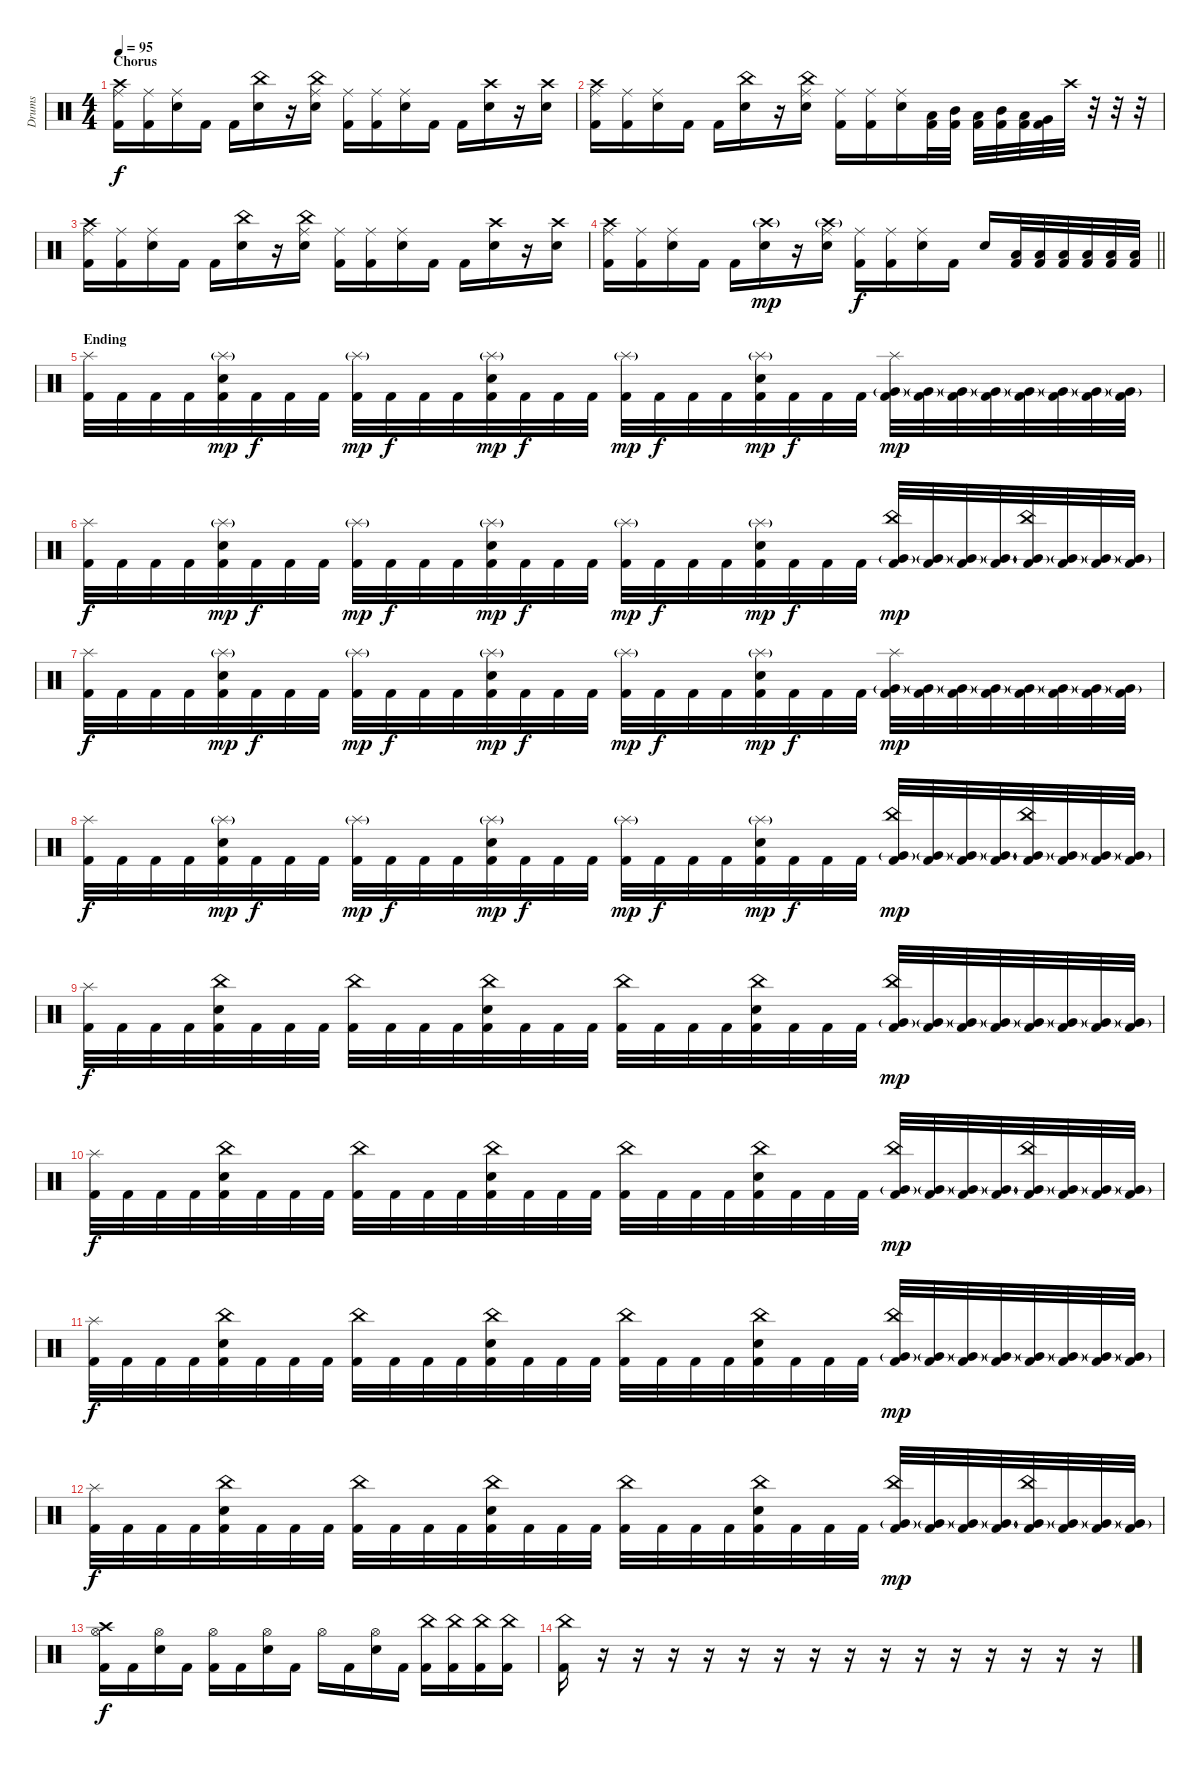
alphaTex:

\track ("Drums" "Drums") {instrument percussion}
\staff {score}
\articulation defaults
\ts (4 4)
\section ("" "Chorus")
\tempo 95
\clef neutral
\ks c
("Crash high (hit)" "Kick (hit) 2" "Ride (middle)").16{dy f} ("Kick (hit) 2" "Ride (middle)").16 ("Snare (hit) 2" "Ride (middle)").16 "Kick (hit) 2".16 "Kick (hit) 2".16 ("China (hit)" "Snare (hit) 2").16 r.16 ("China (hit)" "Snare (hit) 2" "Ride (middle)").16 ("Kick (hit) 2" "Ride (middle)").16 ("Kick (hit) 2" "Ride (middle)").16 ("Snare (hit) 2" "Ride (middle)").16 "Kick (hit) 2".16 "Kick (hit) 2".16 ("Crash high (hit)" "Snare (hit) 2").16 r.16 ("Crash high (hit)" "Snare (hit) 2").16 |
("Crash high (hit)" "Kick (hit) 2" "Ride (middle)").16 ("Kick (hit) 2" "Ride (middle)").16 ("Snare (hit) 2" "Ride (middle)").16 "Kick (hit) 2".16 "Kick (hit) 2".16 ("China (hit)" "Snare (hit) 2").16 r.16 ("China (hit)" "Snare (hit) 2" "Ride (middle)").16 ("Kick (hit) 2" "Ride (middle)").16 ("Kick (hit) 2" "Ride (middle)").16 ("Snare (hit) 2" "Ride (middle)").16 ("Low Tom (hit)" "Kick (hit) 2").32 ("Mid Tom (hit)" "Kick (hit) 2").32 ("Low Tom (hit)" "Kick (hit) 2").32 ("Mid Tom (hit)" "Kick (hit) 2").32 ("Low Tom (hit)" "Kick (hit) 2").32 ("Very Low Tom (hit)" "Kick (hit) 2").32 "Crash high (hit)".32 r.32 r.32 r.32 |
("Crash high (hit)" "Kick (hit) 2" "Ride (middle)").16 ("Kick (hit) 2" "Ride (middle)").16 ("Snare (hit) 2" "Ride (middle)").16 "Kick (hit) 2".16 "Kick (hit) 2".16 ("China (hit)" "Snare (hit) 2").16 r.16 ("China (hit)" "Snare (hit) 2" "Ride (middle)").16 ("Kick (hit) 2" "Ride (middle)").16 ("Kick (hit) 2" "Ride (middle)").16 ("Snare (hit) 2" "Ride (middle)").16 "Kick (hit) 2".16 "Kick (hit) 2".16 ("Crash high (hit)" "Snare (hit) 2").16 r.16 ("Crash high (hit)" "Snare (hit) 2").16 |
\barLineRight lightlight
("Crash high (hit)" "Kick (hit) 2" "Ride (middle)").16 ("Kick (hit) 2" "Ride (middle)").16 ("Snare (hit) 2" "Ride (middle)").16 "Kick (hit) 2".16 "Kick (hit) 2".16 ("Crash high (hit)"{g} "Snare (hit) 2").16{dy mp} r.16 ("Crash high (hit)"{g} "Snare (hit) 2" "Ride (middle)").16 ("Kick (hit) 2" "Ride (middle)").16{dy f} ("Kick (hit) 2" "Ride (middle)").16 ("Snare (hit) 2" "Ride (middle)").16 "Kick (hit) 2".16 "Snare (hit) 2".16 ("Low Tom (hit)" "Kick (hit) 2").32 ("Low Tom (hit)" "Kick (hit) 2").32 ("Low Tom (hit)" "Kick (hit) 2").32 ("Low Tom (hit)" "Kick (hit) 2").32 ("Low Tom (hit)" "Kick (hit) 2").32 ("Low Tom (hit)" "Kick (hit) 2").32 |
\section ("" "Ending")
("Splash (hit)" "Kick (hit) 2").32 "Kick (hit) 2".32 "Kick (hit) 2".32 "Kick (hit) 2".32 ("Splash (hit)"{g} "Snare (hit) 2" "Kick (hit) 2").32{dy mp} "Kick (hit) 2".32{dy f} "Kick (hit) 2".32 "Kick (hit) 2".32 ("Splash (hit)"{g} "Kick (hit) 2").32{dy mp} "Kick (hit) 2".32{dy f} "Kick (hit) 2".32 "Kick (hit) 2".32 ("Splash (hit)"{g} "Snare (hit) 2" "Kick (hit) 2").32{dy mp} "Kick (hit) 2".32{dy f} "Kick (hit) 2".32 "Kick (hit) 2".32 ("Splash (hit)"{g} "Kick (hit) 2").32{dy mp} "Kick (hit) 2".32{dy f} "Kick (hit) 2".32 "Kick (hit) 2".32 ("Splash (hit)"{g} "Snare (hit) 2" "Kick (hit) 2").32{dy mp} "Kick (hit) 2".32{dy f} "Kick (hit) 2".32 "Kick (hit) 2".32 ("Splash (hit)" "Very Low Tom (hit)"{g} "Kick (hit) 2").32{dy mp} ("Very Low Tom (hit)"{g} "Kick (hit) 2").32 ("Very Low Tom (hit)"{g} "Kick (hit) 2").32 ("Very Low Tom (hit)"{g} "Kick (hit) 2").32 ("Very Low Tom (hit)"{g} "Kick (hit) 2").32 ("Very Low Tom (hit)"{g} "Kick (hit) 2").32 ("Very Low Tom (hit)"{g} "Kick (hit) 2").32 ("Very Low Tom (hit)"{g} "Kick (hit) 2").32 |
("Splash (hit)" "Kick (hit) 2").32{dy f} "Kick (hit) 2".32 "Kick (hit) 2".32 "Kick (hit) 2".32 ("Splash (hit)"{g} "Snare (hit) 2" "Kick (hit) 2").32{dy mp} "Kick (hit) 2".32{dy f} "Kick (hit) 2".32 "Kick (hit) 2".32 ("Splash (hit)"{g} "Kick (hit) 2").32{dy mp} "Kick (hit) 2".32{dy f} "Kick (hit) 2".32 "Kick (hit) 2".32 ("Splash (hit)"{g} "Snare (hit) 2" "Kick (hit) 2").32{dy mp} "Kick (hit) 2".32{dy f} "Kick (hit) 2".32 "Kick (hit) 2".32 ("Splash (hit)"{g} "Kick (hit) 2").32{dy mp} "Kick (hit) 2".32{dy f} "Kick (hit) 2".32 "Kick (hit) 2".32 ("Splash (hit)"{g} "Snare (hit) 2" "Kick (hit) 2").32{dy mp} "Kick (hit) 2".32{dy f} "Kick (hit) 2".32 "Kick (hit) 2".32 ("China (hit)" "Very Low Tom (hit)"{g} "Kick (hit) 2").32{dy mp} ("Very Low Tom (hit)"{g} "Kick (hit) 2").32 ("Very Low Tom (hit)"{g} "Kick (hit) 2").32 ("Very Low Tom (hit)"{g} "Kick (hit) 2").32 ("China (hit)" "Very Low Tom (hit)"{g} "Kick (hit) 2").32 ("Very Low Tom (hit)"{g} "Kick (hit) 2").32 ("Very Low Tom (hit)"{g} "Kick (hit) 2").32 ("Very Low Tom (hit)"{g} "Kick (hit) 2").32 |
("Splash (hit)" "Kick (hit) 2").32{dy f} "Kick (hit) 2".32 "Kick (hit) 2".32 "Kick (hit) 2".32 ("Splash (hit)"{g} "Snare (hit) 2" "Kick (hit) 2").32{dy mp} "Kick (hit) 2".32{dy f} "Kick (hit) 2".32 "Kick (hit) 2".32 ("Splash (hit)"{g} "Kick (hit) 2").32{dy mp} "Kick (hit) 2".32{dy f} "Kick (hit) 2".32 "Kick (hit) 2".32 ("Splash (hit)"{g} "Snare (hit) 2" "Kick (hit) 2").32{dy mp} "Kick (hit) 2".32{dy f} "Kick (hit) 2".32 "Kick (hit) 2".32 ("Splash (hit)"{g} "Kick (hit) 2").32{dy mp} "Kick (hit) 2".32{dy f} "Kick (hit) 2".32 "Kick (hit) 2".32 ("Splash (hit)"{g} "Snare (hit) 2" "Kick (hit) 2").32{dy mp} "Kick (hit) 2".32{dy f} "Kick (hit) 2".32 "Kick (hit) 2".32 ("Splash (hit)" "Very Low Tom (hit)"{g} "Kick (hit) 2").32{dy mp} ("Very Low Tom (hit)"{g} "Kick (hit) 2").32 ("Very Low Tom (hit)"{g} "Kick (hit) 2").32 ("Very Low Tom (hit)"{g} "Kick (hit) 2").32 ("Very Low Tom (hit)"{g} "Kick (hit) 2").32 ("Very Low Tom (hit)"{g} "Kick (hit) 2").32 ("Very Low Tom (hit)"{g} "Kick (hit) 2").32 ("Very Low Tom (hit)"{g} "Kick (hit) 2").32 |
("Splash (hit)" "Kick (hit) 2").32{dy f} "Kick (hit) 2".32 "Kick (hit) 2".32 "Kick (hit) 2".32 ("Splash (hit)"{g} "Snare (hit) 2" "Kick (hit) 2").32{dy mp} "Kick (hit) 2".32{dy f} "Kick (hit) 2".32 "Kick (hit) 2".32 ("Splash (hit)"{g} "Kick (hit) 2").32{dy mp} "Kick (hit) 2".32{dy f} "Kick (hit) 2".32 "Kick (hit) 2".32 ("Splash (hit)"{g} "Snare (hit) 2" "Kick (hit) 2").32{dy mp} "Kick (hit) 2".32{dy f} "Kick (hit) 2".32 "Kick (hit) 2".32 ("Splash (hit)"{g} "Kick (hit) 2").32{dy mp} "Kick (hit) 2".32{dy f} "Kick (hit) 2".32 "Kick (hit) 2".32 ("Splash (hit)"{g} "Snare (hit) 2" "Kick (hit) 2").32{dy mp} "Kick (hit) 2".32{dy f} "Kick (hit) 2".32 "Kick (hit) 2".32 ("China (hit)" "Very Low Tom (hit)"{g} "Kick (hit) 2").32{dy mp} ("Very Low Tom (hit)"{g} "Kick (hit) 2").32 ("Very Low Tom (hit)"{g} "Kick (hit) 2").32 ("Very Low Tom (hit)"{g} "Kick (hit) 2").32 ("China (hit)" "Very Low Tom (hit)"{g} "Kick (hit) 2").32 ("Very Low Tom (hit)"{g} "Kick (hit) 2").32 ("Very Low Tom (hit)"{g} "Kick (hit) 2").32 ("Very Low Tom (hit)"{g} "Kick (hit) 2").32 |
("Splash (hit)" "Kick (hit) 2").32{dy f} "Kick (hit) 2".32 "Kick (hit) 2".32 "Kick (hit) 2".32 ("China (hit)" "Snare (hit) 2" "Kick (hit) 2").32 "Kick (hit) 2".32 "Kick (hit) 2".32 "Kick (hit) 2".32 ("China (hit)" "Kick (hit) 2").32 "Kick (hit) 2".32 "Kick (hit) 2".32 "Kick (hit) 2".32 ("China (hit)" "Snare (hit) 2" "Kick (hit) 2").32 "Kick (hit) 2".32 "Kick (hit) 2".32 "Kick (hit) 2".32 ("China (hit)" "Kick (hit) 2").32 "Kick (hit) 2".32 "Kick (hit) 2".32 "Kick (hit) 2".32 ("China (hit)" "Snare (hit) 2" "Kick (hit) 2").32 "Kick (hit) 2".32 "Kick (hit) 2".32 "Kick (hit) 2".32 ("China (hit)" "Very Low Tom (hit)"{g} "Kick (hit) 2").32{dy mp} ("Very Low Tom (hit)"{g} "Kick (hit) 2").32 ("Very Low Tom (hit)"{g} "Kick (hit) 2").32 ("Very Low Tom (hit)"{g} "Kick (hit) 2").32 ("Very Low Tom (hit)"{g} "Kick (hit) 2").32 ("Very Low Tom (hit)"{g} "Kick (hit) 2").32 ("Very Low Tom (hit)"{g} "Kick (hit) 2").32 ("Very Low Tom (hit)"{g} "Kick (hit) 2").32 |
("Splash (hit)" "Kick (hit) 2").32{dy f} "Kick (hit) 2".32 "Kick (hit) 2".32 "Kick (hit) 2".32 ("China (hit)" "Snare (hit) 2" "Kick (hit) 2").32 "Kick (hit) 2".32 "Kick (hit) 2".32 "Kick (hit) 2".32 ("China (hit)" "Kick (hit) 2").32 "Kick (hit) 2".32 "Kick (hit) 2".32 "Kick (hit) 2".32 ("China (hit)" "Snare (hit) 2" "Kick (hit) 2").32 "Kick (hit) 2".32 "Kick (hit) 2".32 "Kick (hit) 2".32 ("China (hit)" "Kick (hit) 2").32 "Kick (hit) 2".32 "Kick (hit) 2".32 "Kick (hit) 2".32 ("China (hit)" "Snare (hit) 2" "Kick (hit) 2").32 "Kick (hit) 2".32 "Kick (hit) 2".32 "Kick (hit) 2".32 ("China (hit)" "Very Low Tom (hit)"{g} "Kick (hit) 2").32{dy mp} ("Very Low Tom (hit)"{g} "Kick (hit) 2").32 ("Very Low Tom (hit)"{g} "Kick (hit) 2").32 ("Very Low Tom (hit)"{g} "Kick (hit) 2").32 ("China (hit)" "Very Low Tom (hit)"{g} "Kick (hit) 2").32 ("Very Low Tom (hit)"{g} "Kick (hit) 2").32 ("Very Low Tom (hit)"{g} "Kick (hit) 2").32 ("Very Low Tom (hit)"{g} "Kick (hit) 2").32 |
("Splash (hit)" "Kick (hit) 2").32{dy f} "Kick (hit) 2".32 "Kick (hit) 2".32 "Kick (hit) 2".32 ("China (hit)" "Snare (hit) 2" "Kick (hit) 2").32 "Kick (hit) 2".32 "Kick (hit) 2".32 "Kick (hit) 2".32 ("China (hit)" "Kick (hit) 2").32 "Kick (hit) 2".32 "Kick (hit) 2".32 "Kick (hit) 2".32 ("China (hit)" "Snare (hit) 2" "Kick (hit) 2").32 "Kick (hit) 2".32 "Kick (hit) 2".32 "Kick (hit) 2".32 ("China (hit)" "Kick (hit) 2").32 "Kick (hit) 2".32 "Kick (hit) 2".32 "Kick (hit) 2".32 ("China (hit)" "Snare (hit) 2" "Kick (hit) 2").32 "Kick (hit) 2".32 "Kick (hit) 2".32 "Kick (hit) 2".32 ("China (hit)" "Very Low Tom (hit)"{g} "Kick (hit) 2").32{dy mp} ("Very Low Tom (hit)"{g} "Kick (hit) 2").32 ("Very Low Tom (hit)"{g} "Kick (hit) 2").32 ("Very Low Tom (hit)"{g} "Kick (hit) 2").32 ("Very Low Tom (hit)"{g} "Kick (hit) 2").32 ("Very Low Tom (hit)"{g} "Kick (hit) 2").32 ("Very Low Tom (hit)"{g} "Kick (hit) 2").32 ("Very Low Tom (hit)"{g} "Kick (hit) 2").32 |
("Splash (hit)" "Kick (hit) 2").32{dy f} "Kick (hit) 2".32 "Kick (hit) 2".32 "Kick (hit) 2".32 ("China (hit)" "Snare (hit) 2" "Kick (hit) 2").32 "Kick (hit) 2".32 "Kick (hit) 2".32 "Kick (hit) 2".32 ("China (hit)" "Kick (hit) 2").32 "Kick (hit) 2".32 "Kick (hit) 2".32 "Kick (hit) 2".32 ("China (hit)" "Snare (hit) 2" "Kick (hit) 2").32 "Kick (hit) 2".32 "Kick (hit) 2".32 "Kick (hit) 2".32 ("China (hit)" "Kick (hit) 2").32 "Kick (hit) 2".32 "Kick (hit) 2".32 "Kick (hit) 2".32 ("China (hit)" "Snare (hit) 2" "Kick (hit) 2").32 "Kick (hit) 2".32 "Kick (hit) 2".32 "Kick (hit) 2".32 ("China (hit)" "Very Low Tom (hit)"{g} "Kick (hit) 2").32{dy mp} ("Very Low Tom (hit)"{g} "Kick (hit) 2").32 ("Very Low Tom (hit)"{g} "Kick (hit) 2").32 ("Very Low Tom (hit)"{g} "Kick (hit) 2").32 ("China (hit)" "Very Low Tom (hit)"{g} "Kick (hit) 2").32 ("Very Low Tom (hit)"{g} "Kick (hit) 2").32 ("Very Low Tom (hit)"{g} "Kick (hit) 2").32 ("Very Low Tom (hit)"{g} "Kick (hit) 2").32 |
("Crash high (hit)" "Kick (hit) 2" "Hi-Hat (open)").16{dy f} "Kick (hit) 2".16 ("Snare (hit) 2" "Hi-Hat (open)").16 "Kick (hit) 2".16 ("Kick (hit) 2" "Hi-Hat (open)").16 "Kick (hit) 2".16 ("Snare (hit) 2" "Hi-Hat (open)").16 "Kick (hit) 2".16 "Hi-Hat (open)".16 "Kick (hit) 2".16 ("Snare (hit) 2" "Hi-Hat (open)").16 "Kick (hit) 2".16 ("Kick (hit) 2" "China (hit)").16 ("Kick (hit) 2" "China (hit)").16 ("Kick (hit) 2" "China (hit)").16 ("Kick (hit) 2" "China (hit)").16 |
("Kick (hit) 2" "China (hit)").16 r.16 r.16 r.16 r.16 r.16 r.16 r.16 r.16 r.16 r.16 r.16 r.16 r.16 r.16 r.16
